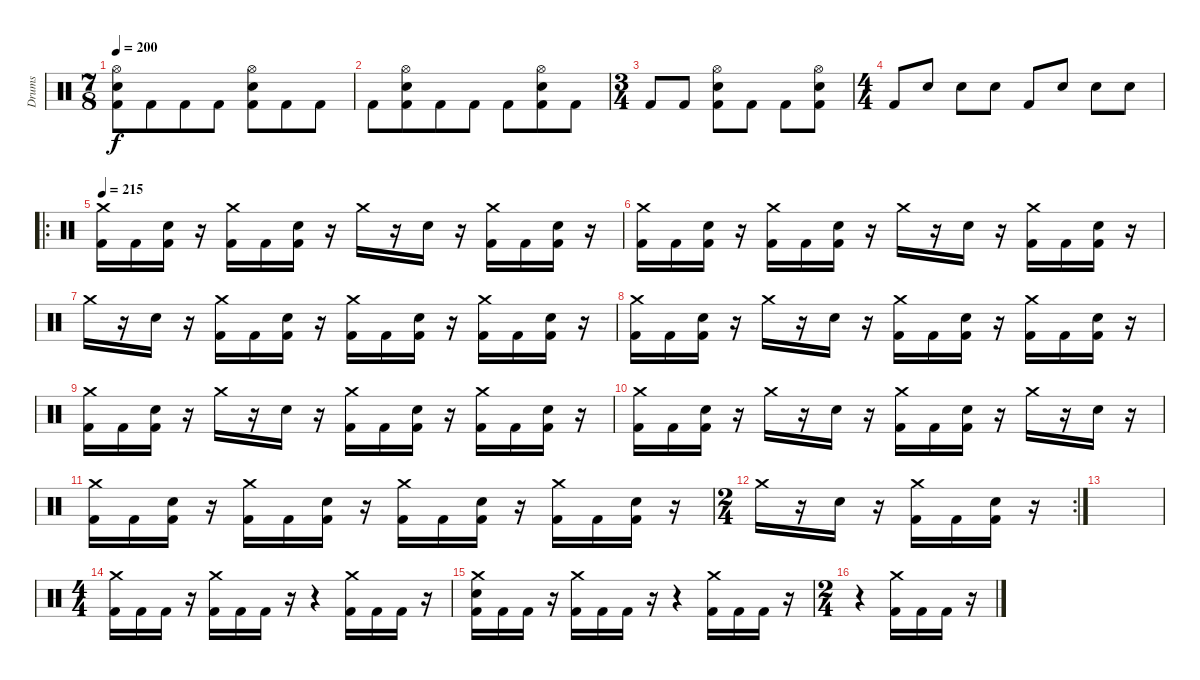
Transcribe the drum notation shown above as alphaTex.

\track ("Drums" "Drums") {instrument percussion}
\staff {score}
\articulation defaults
\ts (7 8)
\tempo 200
\clef neutral
\ks c
("Hi-Hat (open)" "Electric Snare (hit)" "Kick (hit) 2").8{dy f} "Kick (hit) 2".8 "Kick (hit) 2".8 "Kick (hit) 2".8 ("Hi-Hat (open)" "Electric Snare (hit)" "Kick (hit) 2").8 "Kick (hit) 2".8 "Kick (hit) 2".8 |
"Kick (hit) 2".8 ("Hi-Hat (open)" "Electric Snare (hit)" "Kick (hit) 2").8 "Kick (hit) 2".8 "Kick (hit) 2".8 "Kick (hit) 2".8 ("Hi-Hat (open)" "Electric Snare (hit)" "Kick (hit) 2").8 "Kick (hit) 2".8 |
\ts (3 4)
"Kick (hit) 2".8 "Kick (hit) 2".8 ("Hi-Hat (open)" "Electric Snare (hit)" "Kick (hit) 2").8 "Kick (hit) 2".8 "Kick (hit) 2".8 ("Hi-Hat (open)" "Electric Snare (hit)" "Kick (hit) 2").8 |
\ts (4 4)
"Kick (hit) 2".8 "Electric Snare (hit)".8 "Electric Snare (hit)".8 "Electric Snare (hit)".8 "Kick (hit) 2".8 "Electric Snare (hit)".8 "Electric Snare (hit)".8 "Electric Snare (hit)".8 |
\ro
\tempo 215
("Crash medium (hit)" "Kick (hit) 2").16 "Kick (hit) 2".16 ("Electric Snare (hit)" "Kick (hit) 2").16 r.16 ("Crash medium (hit)" "Kick (hit) 2").16 "Kick (hit) 2".16 ("Electric Snare (hit)" "Kick (hit) 2").16 r.16 "Crash medium (hit)".16 r.16 "Electric Snare (hit)".16 r.16 ("Crash medium (hit)" "Kick (hit) 2").16 "Kick (hit) 2".16 ("Electric Snare (hit)" "Kick (hit) 2").16 r.16 |
("Crash medium (hit)" "Kick (hit) 2").16 "Kick (hit) 2".16 ("Electric Snare (hit)" "Kick (hit) 2").16 r.16 ("Crash medium (hit)" "Kick (hit) 2").16 "Kick (hit) 2".16 ("Electric Snare (hit)" "Kick (hit) 2").16 r.16 "Crash medium (hit)".16 r.16 "Electric Snare (hit)".16 r.16 ("Crash medium (hit)" "Kick (hit) 2").16 "Kick (hit) 2".16 ("Electric Snare (hit)" "Kick (hit) 2").16 r.16 |
"Crash medium (hit)".16 r.16 "Electric Snare (hit)".16 r.16 ("Crash medium (hit)" "Kick (hit) 2").16 "Kick (hit) 2".16 ("Electric Snare (hit)" "Kick (hit) 2").16 r.16 ("Crash medium (hit)" "Kick (hit) 2").16 "Kick (hit) 2".16 ("Electric Snare (hit)" "Kick (hit) 2").16 r.16 ("Crash medium (hit)" "Kick (hit) 2").16 "Kick (hit) 2".16 ("Electric Snare (hit)" "Kick (hit) 2").16 r.16 |
("Crash medium (hit)" "Kick (hit) 2").16 "Kick (hit) 2".16 ("Electric Snare (hit)" "Kick (hit) 2").16 r.16 "Crash medium (hit)".16 r.16 "Electric Snare (hit)".16 r.16 ("Crash medium (hit)" "Kick (hit) 2").16 "Kick (hit) 2".16 ("Electric Snare (hit)" "Kick (hit) 2").16 r.16 ("Crash medium (hit)" "Kick (hit) 2").16 "Kick (hit) 2".16 ("Electric Snare (hit)" "Kick (hit) 2").16 r.16 |
("Crash medium (hit)" "Kick (hit) 2").16 "Kick (hit) 2".16 ("Electric Snare (hit)" "Kick (hit) 2").16 r.16 "Crash medium (hit)".16 r.16 "Electric Snare (hit)".16 r.16 ("Crash medium (hit)" "Kick (hit) 2").16 "Kick (hit) 2".16 ("Electric Snare (hit)" "Kick (hit) 2").16 r.16 ("Crash medium (hit)" "Kick (hit) 2").16 "Kick (hit) 2".16 ("Electric Snare (hit)" "Kick (hit) 2").16 r.16 |
("Crash medium (hit)" "Kick (hit) 2").16 "Kick (hit) 2".16 ("Electric Snare (hit)" "Kick (hit) 2").16 r.16 "Crash medium (hit)".16 r.16 "Electric Snare (hit)".16 r.16 ("Crash medium (hit)" "Kick (hit) 2").16 "Kick (hit) 2".16 ("Electric Snare (hit)" "Kick (hit) 2").16 r.16 "Crash medium (hit)".16 r.16 "Electric Snare (hit)".16 r.16 |
("Crash medium (hit)" "Kick (hit) 2").16 "Kick (hit) 2".16 ("Electric Snare (hit)" "Kick (hit) 2").16 r.16 ("Crash medium (hit)" "Kick (hit) 2").16 "Kick (hit) 2".16 ("Electric Snare (hit)" "Kick (hit) 2").16 r.16 ("Crash medium (hit)" "Kick (hit) 2").16 "Kick (hit) 2".16 ("Electric Snare (hit)" "Kick (hit) 2").16 r.16 ("Crash medium (hit)" "Kick (hit) 2").16 "Kick (hit) 2".16 ("Electric Snare (hit)" "Kick (hit) 2").16 r.16 |
\rc 2
\ts (2 4)
"Crash medium (hit)".16 r.16 "Electric Snare (hit)".16 r.16 ("Crash medium (hit)" "Kick (hit) 2").16 "Kick (hit) 2".16 ("Electric Snare (hit)" "Kick (hit) 2").16 r.16 |
|
\ts (4 4)
("Crash medium (hit)" "Kick (hit) 2").16 "Kick (hit) 2".16 "Kick (hit) 2".16 r.16 ("Crash medium (hit)" "Kick (hit) 2").16 "Kick (hit) 2".16 "Kick (hit) 2".16 r.16 r.4 ("Crash medium (hit)" "Kick (hit) 2").16 "Kick (hit) 2".16 "Kick (hit) 2".16 r.16 |
("Crash medium (hit)" "Electric Snare (hit)" "Kick (hit) 2").16 "Kick (hit) 2".16 "Kick (hit) 2".16 r.16 ("Crash medium (hit)" "Kick (hit) 2").16 "Kick (hit) 2".16 "Kick (hit) 2".16 r.16 r.4 ("Crash medium (hit)" "Kick (hit) 2").16 "Kick (hit) 2".16 "Kick (hit) 2".16 r.16 |
\ts (2 4)
r.4 ("Crash medium (hit)" "Kick (hit) 2").16 "Kick (hit) 2".16 "Kick (hit) 2".16 r.16
